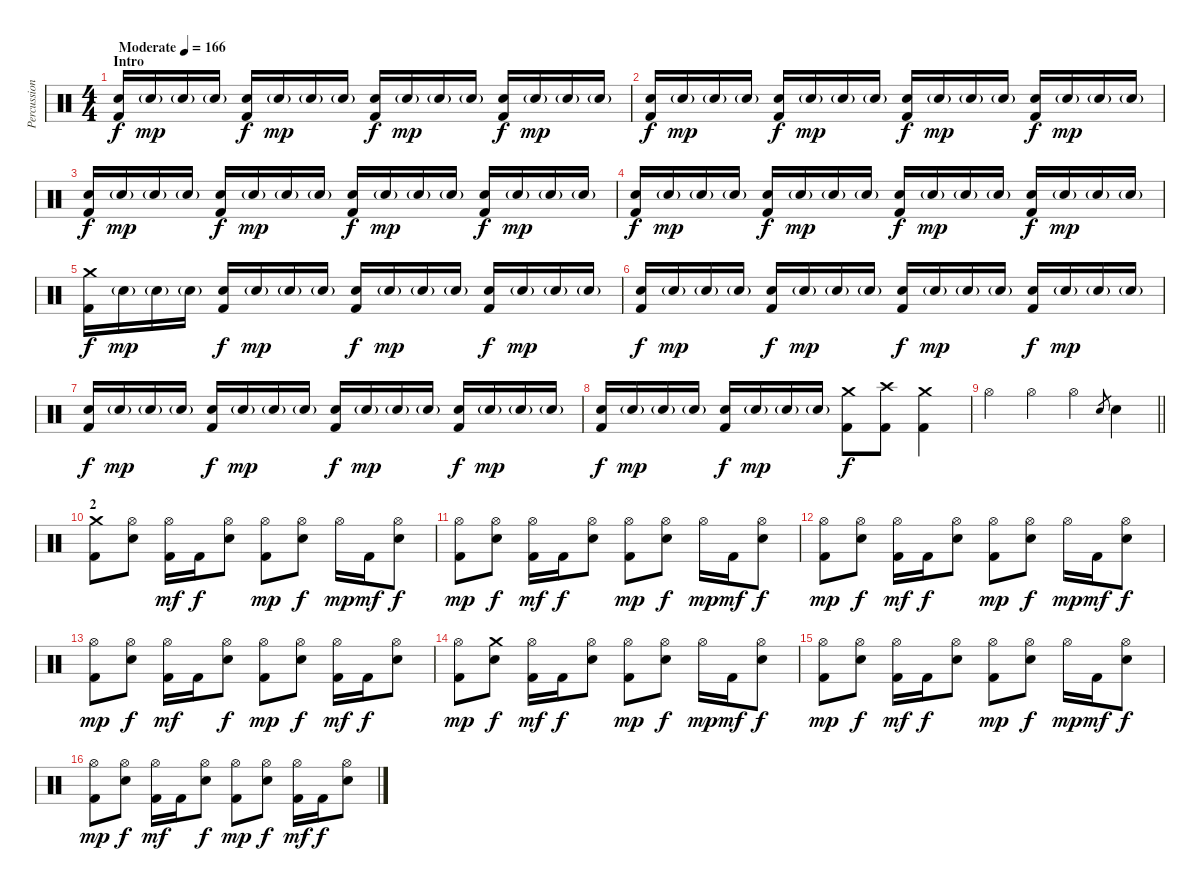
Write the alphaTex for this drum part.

\track ("Percussion" "Percussion") {instrument percussion}
\staff {score}
\articulation defaults
\ts (4 4)
\section ("" "Intro")
\tempo (166 "Moderate")
\clef neutral
\ks c
("Electric Snare (hit)" "Kick (hit) 2").16{dy f} "Electric Snare (hit)"{g}.16{dy mp} "Electric Snare (hit)"{g}.16 "Electric Snare (hit)"{g}.16 ("Electric Snare (hit)" "Kick (hit) 2").16{dy f} "Electric Snare (hit)"{g}.16{dy mp} "Electric Snare (hit)"{g}.16 "Electric Snare (hit)"{g}.16 ("Electric Snare (hit)" "Kick (hit) 2").16{dy f} "Electric Snare (hit)"{g}.16{dy mp} "Electric Snare (hit)"{g}.16 "Electric Snare (hit)"{g}.16 ("Electric Snare (hit)" "Kick (hit) 2").16{dy f} "Electric Snare (hit)"{g}.16{dy mp} "Electric Snare (hit)"{g}.16 "Electric Snare (hit)"{g}.16 |
("Electric Snare (hit)" "Kick (hit) 2").16{dy f} "Electric Snare (hit)"{g}.16{dy mp} "Electric Snare (hit)"{g}.16 "Electric Snare (hit)"{g}.16 ("Electric Snare (hit)" "Kick (hit) 2").16{dy f} "Electric Snare (hit)"{g}.16{dy mp} "Electric Snare (hit)"{g}.16 "Electric Snare (hit)"{g}.16 ("Electric Snare (hit)" "Kick (hit) 2").16{dy f} "Electric Snare (hit)"{g}.16{dy mp} "Electric Snare (hit)"{g}.16 "Electric Snare (hit)"{g}.16 ("Electric Snare (hit)" "Kick (hit) 2").16{dy f} "Electric Snare (hit)"{g}.16{dy mp} "Electric Snare (hit)"{g}.16 "Electric Snare (hit)"{g}.16 |
("Electric Snare (hit)" "Kick (hit) 2").16{dy f} "Electric Snare (hit)"{g}.16{dy mp} "Electric Snare (hit)"{g}.16 "Electric Snare (hit)"{g}.16 ("Electric Snare (hit)" "Kick (hit) 2").16{dy f} "Electric Snare (hit)"{g}.16{dy mp} "Electric Snare (hit)"{g}.16 "Electric Snare (hit)"{g}.16 ("Electric Snare (hit)" "Kick (hit) 2").16{dy f} "Electric Snare (hit)"{g}.16{dy mp} "Electric Snare (hit)"{g}.16 "Electric Snare (hit)"{g}.16 ("Electric Snare (hit)" "Kick (hit) 2").16{dy f} "Electric Snare (hit)"{g}.16{dy mp} "Electric Snare (hit)"{g}.16 "Electric Snare (hit)"{g}.16 |
("Electric Snare (hit)" "Kick (hit) 2").16{dy f} "Electric Snare (hit)"{g}.16{dy mp} "Electric Snare (hit)"{g}.16 "Electric Snare (hit)"{g}.16 ("Electric Snare (hit)" "Kick (hit) 2").16{dy f} "Electric Snare (hit)"{g}.16{dy mp} "Electric Snare (hit)"{g}.16 "Electric Snare (hit)"{g}.16 ("Electric Snare (hit)" "Kick (hit) 2").16{dy f} "Electric Snare (hit)"{g}.16{dy mp} "Electric Snare (hit)"{g}.16 "Electric Snare (hit)"{g}.16 ("Electric Snare (hit)" "Kick (hit) 2").16{dy f} "Electric Snare (hit)"{g}.16{dy mp} "Electric Snare (hit)"{g}.16 "Electric Snare (hit)"{g}.16 |
("Crash medium (hit)" "Kick (hit) 2").16{dy f} "Electric Snare (hit)"{g}.16{dy mp} "Electric Snare (hit)"{g}.16 "Electric Snare (hit)"{g}.16 ("Electric Snare (hit)" "Kick (hit) 2").16{dy f} "Electric Snare (hit)"{g}.16{dy mp} "Electric Snare (hit)"{g}.16 "Electric Snare (hit)"{g}.16 ("Electric Snare (hit)" "Kick (hit) 2").16{dy f} "Electric Snare (hit)"{g}.16{dy mp} "Electric Snare (hit)"{g}.16 "Electric Snare (hit)"{g}.16 ("Electric Snare (hit)" "Kick (hit) 2").16{dy f} "Electric Snare (hit)"{g}.16{dy mp} "Electric Snare (hit)"{g}.16 "Electric Snare (hit)"{g}.16 |
("Electric Snare (hit)" "Kick (hit) 2").16{dy f} "Electric Snare (hit)"{g}.16{dy mp} "Electric Snare (hit)"{g}.16 "Electric Snare (hit)"{g}.16 ("Electric Snare (hit)" "Kick (hit) 2").16{dy f} "Electric Snare (hit)"{g}.16{dy mp} "Electric Snare (hit)"{g}.16 "Electric Snare (hit)"{g}.16 ("Electric Snare (hit)" "Kick (hit) 2").16{dy f} "Electric Snare (hit)"{g}.16{dy mp} "Electric Snare (hit)"{g}.16 "Electric Snare (hit)"{g}.16 ("Electric Snare (hit)" "Kick (hit) 2").16{dy f} "Electric Snare (hit)"{g}.16{dy mp} "Electric Snare (hit)"{g}.16 "Electric Snare (hit)"{g}.16 |
("Electric Snare (hit)" "Kick (hit) 2").16{dy f} "Electric Snare (hit)"{g}.16{dy mp} "Electric Snare (hit)"{g}.16 "Electric Snare (hit)"{g}.16 ("Electric Snare (hit)" "Kick (hit) 2").16{dy f} "Electric Snare (hit)"{g}.16{dy mp} "Electric Snare (hit)"{g}.16 "Electric Snare (hit)"{g}.16 ("Electric Snare (hit)" "Kick (hit) 2").16{dy f} "Electric Snare (hit)"{g}.16{dy mp} "Electric Snare (hit)"{g}.16 "Electric Snare (hit)"{g}.16 ("Electric Snare (hit)" "Kick (hit) 2").16{dy f} "Electric Snare (hit)"{g}.16{dy mp} "Electric Snare (hit)"{g}.16 "Electric Snare (hit)"{g}.16 |
("Electric Snare (hit)" "Kick (hit) 2").16{dy f} "Electric Snare (hit)"{g}.16{dy mp} "Electric Snare (hit)"{g}.16 "Electric Snare (hit)"{g}.16 ("Electric Snare (hit)" "Kick (hit) 2").16{dy f} "Electric Snare (hit)"{g}.16{dy mp} "Electric Snare (hit)"{g}.16 "Electric Snare (hit)"{g}.16 ("Crash medium (hit)" "Kick (hit) 2").8{dy f} ("Crash high (hit)" "Kick (hit) 2").8 ("Crash medium (hit)" "Kick (hit) 2").4 |
\barLineRight lightlight "Hi-Hat (open)".4 "Hi-Hat (open)".4 "Hi-Hat (open)".4 "Electric Snare (hit)".8{gr} "Electric Snare (hit)".4
|
\section ("" "2")
("Crash medium (hit)" "Kick (hit) 2").8 ("Hi-Hat (open)" "Electric Snare (hit)").8 ("Hi-Hat (open)" "Kick (hit) 2").16{dy mf} "Kick (hit) 2".16{dy f} ("Hi-Hat (open)" "Electric Snare (hit)").8 ("Hi-Hat (open)" "Kick (hit) 2").8{dy mp} ("Hi-Hat (open)" "Electric Snare (hit)").8{dy f} "Hi-Hat (open)".16{dy mp} "Kick (hit) 2".16{dy mf} ("Hi-Hat (open)" "Electric Snare (hit)").8{dy f} |
("Hi-Hat (open)" "Kick (hit) 2").8{dy mp} ("Hi-Hat (open)" "Electric Snare (hit)").8{dy f} ("Hi-Hat (open)" "Kick (hit) 2").16{dy mf} "Kick (hit) 2".16{dy f} ("Hi-Hat (open)" "Electric Snare (hit)").8 ("Hi-Hat (open)" "Kick (hit) 2").8{dy mp} ("Hi-Hat (open)" "Electric Snare (hit)").8{dy f} "Hi-Hat (open)".16{dy mp} "Kick (hit) 2".16{dy mf} ("Hi-Hat (open)" "Electric Snare (hit)").8{dy f} |
("Hi-Hat (open)" "Kick (hit) 2").8{dy mp} ("Hi-Hat (open)" "Electric Snare (hit)").8{dy f} ("Hi-Hat (open)" "Kick (hit) 2").16{dy mf} "Kick (hit) 2".16{dy f} ("Hi-Hat (open)" "Electric Snare (hit)").8 ("Hi-Hat (open)" "Kick (hit) 2").8{dy mp} ("Hi-Hat (open)" "Electric Snare (hit)").8{dy f} "Hi-Hat (open)".16{dy mp} "Kick (hit) 2".16{dy mf} ("Hi-Hat (open)" "Electric Snare (hit)").8{dy f} |
("Hi-Hat (open)" "Kick (hit) 2").8{dy mp} ("Hi-Hat (open)" "Electric Snare (hit)").8{dy f} ("Hi-Hat (open)" "Kick (hit) 2").16{dy mf} "Kick (hit) 2".16 ("Hi-Hat (open)" "Electric Snare (hit)").8{dy f} ("Hi-Hat (open)" "Kick (hit) 2").8{dy mp} ("Hi-Hat (open)" "Electric Snare (hit)").8{dy f} ("Hi-Hat (open)" "Kick (hit) 2").16{dy mf} "Kick (hit) 2".16{dy f} ("Hi-Hat (open)" "Electric Snare (hit)").8 |
("Hi-Hat (open)" "Kick (hit) 2").8{dy mp} ("Crash medium (hit)" "Electric Snare (hit)").8{dy f} ("Hi-Hat (open)" "Kick (hit) 2").16{dy mf} "Kick (hit) 2".16{dy f} ("Hi-Hat (open)" "Electric Snare (hit)").8 ("Hi-Hat (open)" "Kick (hit) 2").8{dy mp} ("Hi-Hat (open)" "Electric Snare (hit)").8{dy f} "Hi-Hat (open)".16{dy mp} "Kick (hit) 2".16{dy mf} ("Hi-Hat (open)" "Electric Snare (hit)").8{dy f} |
("Hi-Hat (open)" "Kick (hit) 2").8{dy mp} ("Hi-Hat (open)" "Electric Snare (hit)").8{dy f} ("Hi-Hat (open)" "Kick (hit) 2").16{dy mf} "Kick (hit) 2".16{dy f} ("Hi-Hat (open)" "Electric Snare (hit)").8 ("Hi-Hat (open)" "Kick (hit) 2").8{dy mp} ("Hi-Hat (open)" "Electric Snare (hit)").8{dy f} "Hi-Hat (open)".16{dy mp} "Kick (hit) 2".16{dy mf} ("Hi-Hat (open)" "Electric Snare (hit)").8{dy f} |
("Hi-Hat (open)" "Kick (hit) 2").8{dy mp} ("Hi-Hat (open)" "Electric Snare (hit)").8{dy f} ("Hi-Hat (open)" "Kick (hit) 2").16{dy mf} "Kick (hit) 2".16 ("Hi-Hat (open)" "Electric Snare (hit)").8{dy f} ("Hi-Hat (open)" "Kick (hit) 2").8{dy mp} ("Hi-Hat (open)" "Electric Snare (hit)").8{dy f} ("Hi-Hat (open)" "Kick (hit) 2").16{dy mf} "Kick (hit) 2".16{dy f} ("Hi-Hat (open)" "Electric Snare (hit)").8
